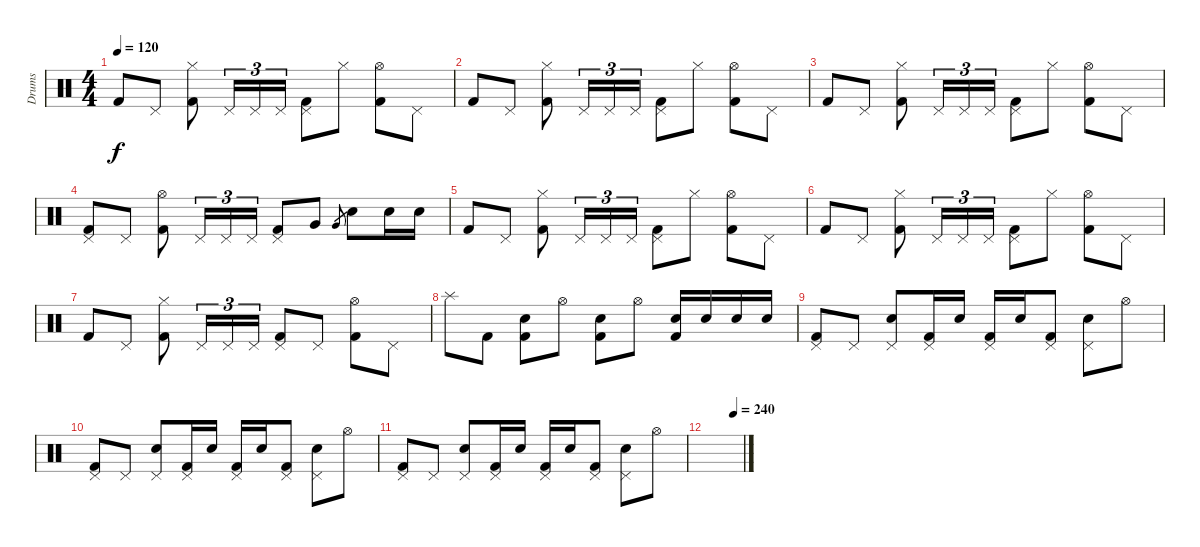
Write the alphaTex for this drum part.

\track ("Drums" "Drums") {instrument percussion}
\staff {score}
\articulation defaults
\ts (4 4)
\tempo 120
\clef neutral
\ks c "Kick (hit) 2".8{dy f} "Pedal Hi-Hat (hit)".8
("Hi-Hat (closed)" "Kick (hit) 2").8 "Pedal Hi-Hat (hit)".16{tu (3 2)} "Pedal Hi-Hat (hit)".16{tu (3 2)} "Pedal Hi-Hat (hit)".16{tu (3 2)} ("Pedal Hi-Hat (hit)" "Kick (hit) 2").8 "Hi-Hat (closed)".8 ("Hi-Hat (open)" "Kick (hit) 2").8 "Pedal Hi-Hat (hit)".8 |
"Kick (hit) 2".8 "Pedal Hi-Hat (hit)".8 ("Hi-Hat (closed)" "Kick (hit) 2").8 "Pedal Hi-Hat (hit)".16{tu (3 2)} "Pedal Hi-Hat (hit)".16{tu (3 2)} "Pedal Hi-Hat (hit)".16{tu (3 2)} ("Pedal Hi-Hat (hit)" "Kick (hit) 2").8 "Hi-Hat (closed)".8 ("Hi-Hat (open)" "Kick (hit) 2").8 "Pedal Hi-Hat (hit)".8 |
"Kick (hit) 2".8 "Pedal Hi-Hat (hit)".8 ("Hi-Hat (closed)" "Kick (hit) 2").8 "Pedal Hi-Hat (hit)".16{tu (3 2)} "Pedal Hi-Hat (hit)".16{tu (3 2)} "Pedal Hi-Hat (hit)".16{tu (3 2)} ("Pedal Hi-Hat (hit)" "Kick (hit) 2").8 "Hi-Hat (closed)".8 ("Hi-Hat (open)" "Kick (hit) 2").8 "Pedal Hi-Hat (hit)".8 |
("Pedal Hi-Hat (hit)" "Kick (hit) 2").8 "Pedal Hi-Hat (hit)".8 ("Hi-Hat (open)" "Kick (hit) 2").8 "Pedal Hi-Hat (hit)".16{tu (3 2)} "Pedal Hi-Hat (hit)".16{tu (3 2)} "Pedal Hi-Hat (hit)".16{tu (3 2)} ("Pedal Hi-Hat (hit)" "Kick (hit) 2").8 "Very Low Tom (hit)".8 "Very Low Tom (hit)".8{gr} "Electric Snare (hit)".8 "Electric Snare (hit)".16 "Electric Snare (hit)".16 |
"Kick (hit) 2".8 "Pedal Hi-Hat (hit)".8 ("Hi-Hat (closed)" "Kick (hit) 2").8 "Pedal Hi-Hat (hit)".16{tu (3 2)} "Pedal Hi-Hat (hit)".16{tu (3 2)} "Pedal Hi-Hat (hit)".16{tu (3 2)} ("Pedal Hi-Hat (hit)" "Kick (hit) 2").8 "Hi-Hat (closed)".8 ("Hi-Hat (open)" "Kick (hit) 2").8 "Pedal Hi-Hat (hit)".8 |
"Kick (hit) 2".8 "Pedal Hi-Hat (hit)".8 ("Hi-Hat (closed)" "Kick (hit) 2").8 "Pedal Hi-Hat (hit)".16{tu (3 2)} "Pedal Hi-Hat (hit)".16{tu (3 2)} "Pedal Hi-Hat (hit)".16{tu (3 2)} ("Pedal Hi-Hat (hit)" "Kick (hit) 2").8 "Hi-Hat (closed)".8 ("Hi-Hat (open)" "Kick (hit) 2").8 "Pedal Hi-Hat (hit)".8 |
"Kick (hit) 2".8 "Pedal Hi-Hat (hit)".8 ("Hi-Hat (closed)" "Kick (hit) 2").8 "Pedal Hi-Hat (hit)".16{tu (3 2)} "Pedal Hi-Hat (hit)".16{tu (3 2)} "Pedal Hi-Hat (hit)".16{tu (3 2)} ("Pedal Hi-Hat (hit)" "Kick (hit) 2").8 "Pedal Hi-Hat (hit)".8 ("Hi-Hat (open)" "Kick (hit) 2").8 "Pedal Hi-Hat (hit)".8 |
"Splash (hit)".8 "Kick (hit) 2".8 ("Electric Snare (hit)" "Kick (hit) 2").8 "Hi-Hat (open)".8 ("Electric Snare (hit)" "Kick (hit) 2").8 "Hi-Hat (open)".8 ("Electric Snare (hit)" "Kick (hit) 2").16 "Electric Snare (hit)".16 "Electric Snare (hit)".16 "Electric Snare (hit)".16 |
("Pedal Hi-Hat (hit)" "Kick (hit) 2").8 "Pedal Hi-Hat (hit)".8 ("Pedal Hi-Hat (hit)" "Electric Snare (hit)").8 ("Pedal Hi-Hat (hit)" "Kick (hit) 2").16 "Electric Snare (hit)".16 ("Pedal Hi-Hat (hit)" "Kick (hit) 2").16 "Electric Snare (hit)".16 ("Pedal Hi-Hat (hit)" "Kick (hit) 2").8 ("Pedal Hi-Hat (hit)" "Electric Snare (hit)").8 "Hi-Hat (open)".8 |
("Pedal Hi-Hat (hit)" "Kick (hit) 2").8 "Pedal Hi-Hat (hit)".8 ("Pedal Hi-Hat (hit)" "Electric Snare (hit)").8 ("Pedal Hi-Hat (hit)" "Kick (hit) 2").16 "Electric Snare (hit)".16 ("Pedal Hi-Hat (hit)" "Kick (hit) 2").16 "Electric Snare (hit)".16 ("Pedal Hi-Hat (hit)" "Kick (hit) 2").8 ("Pedal Hi-Hat (hit)" "Electric Snare (hit)").8 "Hi-Hat (open)".8 |
("Pedal Hi-Hat (hit)" "Kick (hit) 2").8 "Pedal Hi-Hat (hit)".8 ("Pedal Hi-Hat (hit)" "Electric Snare (hit)").8 ("Pedal Hi-Hat (hit)" "Kick (hit) 2").16 "Electric Snare (hit)".16 ("Pedal Hi-Hat (hit)" "Kick (hit) 2").16 "Electric Snare (hit)".16 ("Pedal Hi-Hat (hit)" "Kick (hit) 2").8 ("Pedal Hi-Hat (hit)" "Electric Snare (hit)").8 "Hi-Hat (open)".8 |
\tempo (240 0.75)
